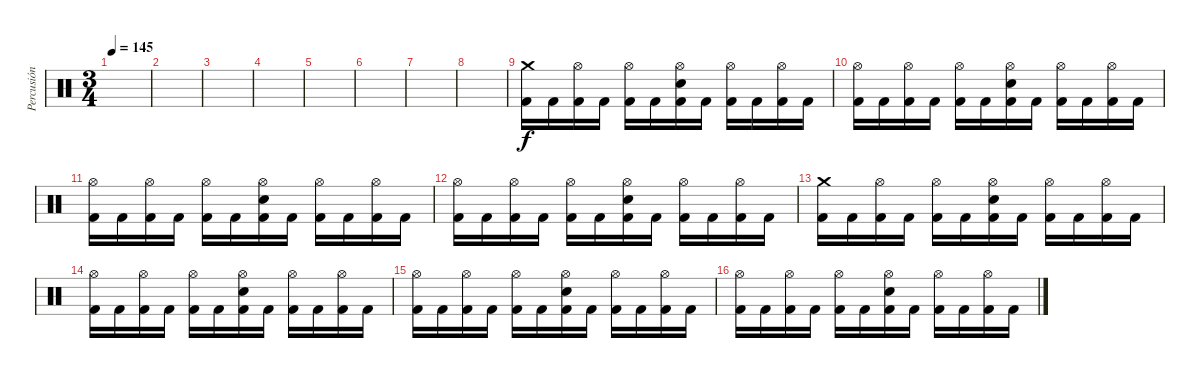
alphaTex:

\track ("Percusión" "Percusión") {instrument percussion}
\staff {score}
\articulation defaults
\ts (3 4)
\tempo 145
\clef neutral
\ks c
|
|
|
|
|
|
|
|
("Crash medium (hit)" "Kick (hit) 2").16 "Kick (hit) 2".16 ("Hi-Hat (open)" "Kick (hit) 2").16 "Kick (hit) 2".16 ("Hi-Hat (open)" "Kick (hit) 2").16 "Kick (hit) 2".16 ("Hi-Hat (open)" "Snare (hit) 2" "Kick (hit) 2").16 "Kick (hit) 2".16 ("Hi-Hat (open)" "Kick (hit) 2").16 "Kick (hit) 2".16 ("Hi-Hat (open)" "Kick (hit) 2").16 "Kick (hit) 2".16 |
("Hi-Hat (open)" "Kick (hit) 2").16 "Kick (hit) 2".16 ("Hi-Hat (open)" "Kick (hit) 2").16 "Kick (hit) 2".16 ("Hi-Hat (open)" "Kick (hit) 2").16 "Kick (hit) 2".16 ("Hi-Hat (open)" "Snare (hit) 2" "Kick (hit) 2").16 "Kick (hit) 2".16 ("Hi-Hat (open)" "Kick (hit) 2").16 "Kick (hit) 2".16 ("Hi-Hat (open)" "Kick (hit) 2").16 "Kick (hit) 2".16 |
("Hi-Hat (open)" "Kick (hit) 2").16 "Kick (hit) 2".16 ("Hi-Hat (open)" "Kick (hit) 2").16 "Kick (hit) 2".16 ("Hi-Hat (open)" "Kick (hit) 2").16 "Kick (hit) 2".16 ("Hi-Hat (open)" "Snare (hit) 2" "Kick (hit) 2").16 "Kick (hit) 2".16 ("Hi-Hat (open)" "Kick (hit) 2").16 "Kick (hit) 2".16 ("Hi-Hat (open)" "Kick (hit) 2").16 "Kick (hit) 2".16 |
("Hi-Hat (open)" "Kick (hit) 2").16 "Kick (hit) 2".16 ("Hi-Hat (open)" "Kick (hit) 2").16 "Kick (hit) 2".16 ("Hi-Hat (open)" "Kick (hit) 2").16 "Kick (hit) 2".16 ("Hi-Hat (open)" "Snare (hit) 2" "Kick (hit) 2").16 "Kick (hit) 2".16 ("Hi-Hat (open)" "Kick (hit) 2").16 "Kick (hit) 2".16 ("Hi-Hat (open)" "Kick (hit) 2").16 "Kick (hit) 2".16 |
("Crash medium (hit)" "Kick (hit) 2").16 "Kick (hit) 2".16 ("Hi-Hat (open)" "Kick (hit) 2").16 "Kick (hit) 2".16 ("Hi-Hat (open)" "Kick (hit) 2").16 "Kick (hit) 2".16 ("Hi-Hat (open)" "Snare (hit) 2" "Kick (hit) 2").16 "Kick (hit) 2".16 ("Hi-Hat (open)" "Kick (hit) 2").16 "Kick (hit) 2".16 ("Hi-Hat (open)" "Kick (hit) 2").16 "Kick (hit) 2".16 |
("Hi-Hat (open)" "Kick (hit) 2").16 "Kick (hit) 2".16 ("Hi-Hat (open)" "Kick (hit) 2").16 "Kick (hit) 2".16 ("Hi-Hat (open)" "Kick (hit) 2").16 "Kick (hit) 2".16 ("Hi-Hat (open)" "Snare (hit) 2" "Kick (hit) 2").16 "Kick (hit) 2".16 ("Hi-Hat (open)" "Kick (hit) 2").16 "Kick (hit) 2".16 ("Hi-Hat (open)" "Kick (hit) 2").16 "Kick (hit) 2".16 |
("Hi-Hat (open)" "Kick (hit) 2").16 "Kick (hit) 2".16 ("Hi-Hat (open)" "Kick (hit) 2").16 "Kick (hit) 2".16 ("Hi-Hat (open)" "Kick (hit) 2").16 "Kick (hit) 2".16 ("Hi-Hat (open)" "Snare (hit) 2" "Kick (hit) 2").16 "Kick (hit) 2".16 ("Hi-Hat (open)" "Kick (hit) 2").16 "Kick (hit) 2".16 ("Hi-Hat (open)" "Kick (hit) 2").16 "Kick (hit) 2".16 |
("Hi-Hat (open)" "Kick (hit) 2").16 "Kick (hit) 2".16 ("Hi-Hat (open)" "Kick (hit) 2").16 "Kick (hit) 2".16 ("Hi-Hat (open)" "Kick (hit) 2").16 "Kick (hit) 2".16 ("Hi-Hat (open)" "Snare (hit) 2" "Kick (hit) 2").16 "Kick (hit) 2".16 ("Hi-Hat (open)" "Kick (hit) 2").16 "Kick (hit) 2".16 ("Hi-Hat (open)" "Kick (hit) 2").16 "Kick (hit) 2".16
